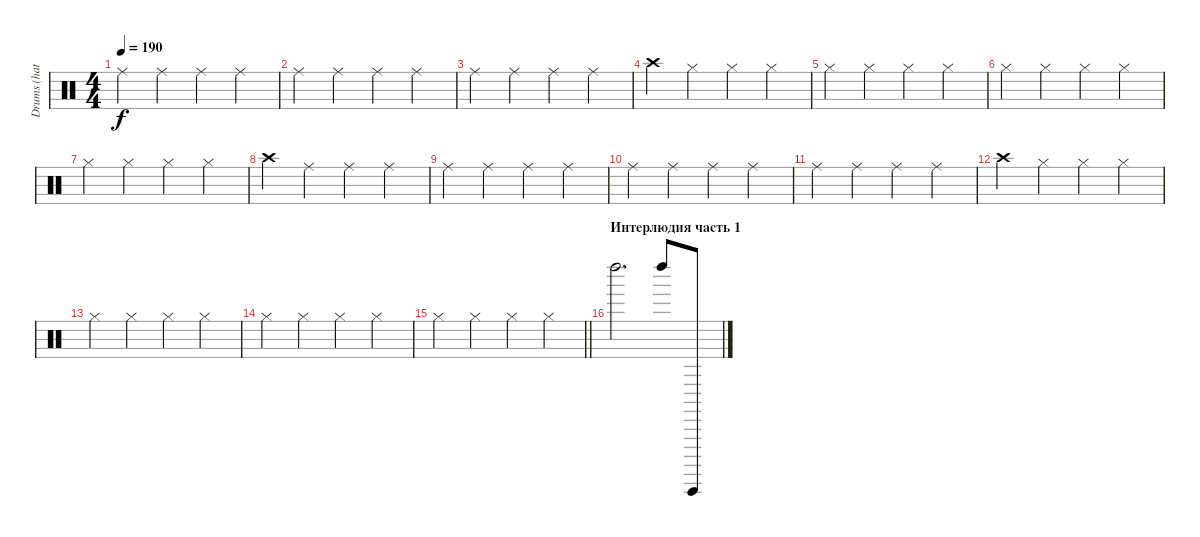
\track ("Drums (hats)" "Drums (hat") {instrument percussion}
\staff {score}
\articulation defaults
\ts (4 4)
\tempo 190
\clef neutral
\ks c "Ride (middle)".4{dy f} "Ride (middle)".4 "Ride (middle)".4 "Ride (middle)".4
|
"Ride (middle)".4 "Ride (middle)".4 "Ride (middle)".4 "Ride (middle)".4 |
"Ride (middle)".4 "Ride (middle)".4 "Ride (middle)".4 "Ride (middle)".4 |
"Crash high (hit)".4 "Hi-Hat (closed)".4 "Hi-Hat (closed)".4 "Hi-Hat (closed)".4 |
"Hi-Hat (closed)".4 "Hi-Hat (closed)".4 "Hi-Hat (closed)".4 "Hi-Hat (closed)".4 |
"Hi-Hat (closed)".4 "Hi-Hat (closed)".4 "Hi-Hat (closed)".4 "Hi-Hat (closed)".4 |
"Hi-Hat (closed)".4 "Hi-Hat (closed)".4 "Hi-Hat (closed)".4 "Hi-Hat (closed)".4 |
"Crash high (hit)".4 "Ride (middle)".4 "Ride (middle)".4 "Ride (middle)".4 |
"Ride (middle)".4 "Ride (middle)".4 "Ride (middle)".4 "Ride (middle)".4 |
"Ride (middle)".4 "Ride (middle)".4 "Ride (middle)".4 "Ride (middle)".4 |
"Ride (middle)".4 "Ride (middle)".4 "Ride (middle)".4 "Ride (middle)".4 |
"Crash high (hit)".4 "Hi-Hat (closed)".4 "Hi-Hat (closed)".4 "Hi-Hat (closed)".4 |
"Hi-Hat (closed)".4 "Hi-Hat (closed)".4 "Hi-Hat (closed)".4 "Hi-Hat (closed)".4 |
"Hi-Hat (closed)".4 "Hi-Hat (closed)".4 "Hi-Hat (closed)".4 "Hi-Hat (closed)".4 |
\barLineRight lightlight "Hi-Hat (closed)".4 "Hi-Hat (closed)".4 "Hi-Hat (closed)".4 "Hi-Hat (closed)".4
|
\section ("" "Интерлюдия часть 1")
"Left Maraca (hit)".2{d} "Left Maraca (hit)".8 "Guiro (hit)".8
